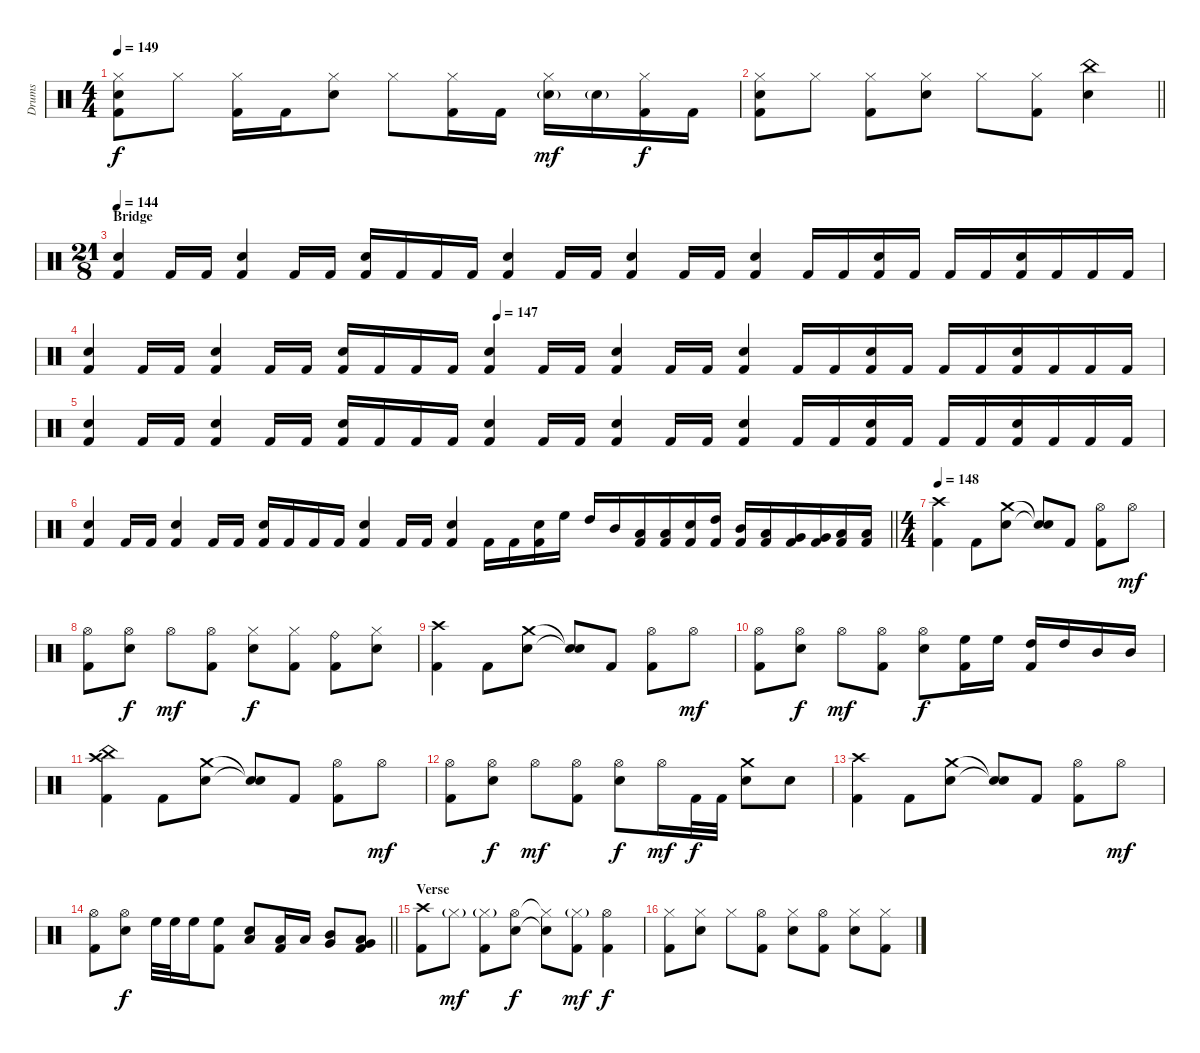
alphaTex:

\track ("Drums" "Drums") {instrument percussion}
\staff {score}
\articulation defaults
\ts (4 4)
\tempo 149
\clef neutral
\ks c
("Hi-Hat (closed)" "Snare (hit) 2" "Kick (hit) 2").8{dy f} "Hi-Hat (closed)".8 ("Hi-Hat (closed)" "Kick (hit) 2").16 "Kick (hit) 2".16 ("Hi-Hat (closed)" "Snare (hit) 2").8 "Hi-Hat (closed)".8 ("Hi-Hat (closed)" "Kick (hit) 2").16 "Kick (hit) 2".16 ("Hi-Hat (closed)" "Snare (hit) 2"{g}).16{dy mf} "Snare (hit) 2"{g}.16 ("Hi-Hat (closed)" "Kick (hit) 2").16{dy f} "Kick (hit) 2".16 |
\barLineRight lightlight
("Hi-Hat (closed)" "Snare (hit) 2" "Kick (hit) 2").8 "Hi-Hat (closed)".8 ("Hi-Hat (closed)" "Kick (hit) 2").8 ("Hi-Hat (closed)" "Snare (hit) 2").8 "Hi-Hat (closed)".8 ("Hi-Hat (closed)" "Kick (hit) 2").8 ("China (hit)" "Snare (hit) 2").4 |
\ts (21 8)
\section ("" "Bridge")
\tempo 144
("Snare (hit) 2" "Kick (hit) 2").4 "Kick (hit) 2".16 "Kick (hit) 2".16 ("Snare (hit) 2" "Kick (hit) 2").4 "Kick (hit) 2".16 "Kick (hit) 2".16 ("Snare (hit) 2" "Kick (hit) 2").16 "Kick (hit) 2".16 "Kick (hit) 2".16 "Kick (hit) 2".16 ("Snare (hit) 2" "Kick (hit) 2").4 "Kick (hit) 2".16 "Kick (hit) 2".16 ("Snare (hit) 2" "Kick (hit) 2").4 "Kick (hit) 2".16 "Kick (hit) 2".16 ("Snare (hit) 2" "Kick (hit) 2").4 "Kick (hit) 2".16 "Kick (hit) 2".16 ("Snare (hit) 2" "Kick (hit) 2").16 "Kick (hit) 2".16 "Kick (hit) 2".16 "Kick (hit) 2".16 ("Snare (hit) 2" "Kick (hit) 2").16 "Kick (hit) 2".16 "Kick (hit) 2".16 "Kick (hit) 2".16 |
\tempo (147 0.38095238095238093)
("Snare (hit) 2" "Kick (hit) 2").4 "Kick (hit) 2".16 "Kick (hit) 2".16 ("Snare (hit) 2" "Kick (hit) 2").4 "Kick (hit) 2".16 "Kick (hit) 2".16 ("Snare (hit) 2" "Kick (hit) 2").16 "Kick (hit) 2".16 "Kick (hit) 2".16 "Kick (hit) 2".16 ("Snare (hit) 2" "Kick (hit) 2").4 "Kick (hit) 2".16 "Kick (hit) 2".16 ("Snare (hit) 2" "Kick (hit) 2").4 "Kick (hit) 2".16 "Kick (hit) 2".16 ("Snare (hit) 2" "Kick (hit) 2").4 "Kick (hit) 2".16 "Kick (hit) 2".16 ("Snare (hit) 2" "Kick (hit) 2").16 "Kick (hit) 2".16 "Kick (hit) 2".16 "Kick (hit) 2".16 ("Snare (hit) 2" "Kick (hit) 2").16 "Kick (hit) 2".16 "Kick (hit) 2".16 "Kick (hit) 2".16 |
("Snare (hit) 2" "Kick (hit) 2").4 "Kick (hit) 2".16 "Kick (hit) 2".16 ("Snare (hit) 2" "Kick (hit) 2").4 "Kick (hit) 2".16 "Kick (hit) 2".16 ("Snare (hit) 2" "Kick (hit) 2").16 "Kick (hit) 2".16 "Kick (hit) 2".16 "Kick (hit) 2".16 ("Snare (hit) 2" "Kick (hit) 2").4 "Kick (hit) 2".16 "Kick (hit) 2".16 ("Snare (hit) 2" "Kick (hit) 2").4 "Kick (hit) 2".16 "Kick (hit) 2".16 ("Snare (hit) 2" "Kick (hit) 2").4 "Kick (hit) 2".16 "Kick (hit) 2".16 ("Snare (hit) 2" "Kick (hit) 2").16 "Kick (hit) 2".16 "Kick (hit) 2".16 "Kick (hit) 2".16 ("Snare (hit) 2" "Kick (hit) 2").16 "Kick (hit) 2".16 "Kick (hit) 2".16 "Kick (hit) 2".16 |
\barLineRight lightlight
("Snare (hit) 2" "Kick (hit) 2").4 "Kick (hit) 2".16 "Kick (hit) 2".16 ("Snare (hit) 2" "Kick (hit) 2").4 "Kick (hit) 2".16 "Kick (hit) 2".16 ("Snare (hit) 2" "Kick (hit) 2").16 "Kick (hit) 2".16 "Kick (hit) 2".16 "Kick (hit) 2".16 ("Snare (hit) 2" "Kick (hit) 2").4 "Kick (hit) 2".16 "Kick (hit) 2".16 ("Snare (hit) 2" "Kick (hit) 2").4 "Kick (hit) 2".16 "Kick (hit) 2".16 ("Snare (hit) 2" "Kick (hit) 2").16 "High Floor Tom (hit)".16 "High Tom (hit)".16 "Mid Tom (hit)".16 ("Low Tom (hit)" "Kick (hit) 2").16 ("Low Tom (hit)" "Kick (hit) 2").16 ("Snare (hit) 2" "Kick (hit) 2").16 ("High Tom (hit)" "Kick (hit) 2").16 ("Mid Tom (hit)" "Kick (hit) 2").16 ("Low Tom (hit)" "Kick (hit) 2").16 ("Very Low Tom (hit)" "Kick (hit) 2").16 ("Very Low Tom (hit)" "Kick (hit) 2").16 ("Low Floor Tom (hit)" "Kick (hit) 2").16 ("Low Floor Tom (hit)" "Kick (hit) 2").16 |
\ts (4 4)
\section ("" "")
\tempo 148
("Crash high (hit)" "Kick (hit) 2").4 "Kick (hit) 2".8 ("Crash medium (hit)" "Snare (hit) 2").8 ("Snare (hit)"{t} "Snare (hit)"{t}).8 "Kick (hit) 2".8 ("Hi-Hat (open)" "Kick (hit) 2").8 "Hi-Hat (open)".8{dy mf} |
("Hi-Hat (open)" "Kick (hit) 2").8 ("Hi-Hat (open)" "Snare (hit) 2").8{dy f} "Hi-Hat (open)".8{dy mf} ("Hi-Hat (open)" "Kick (hit) 2").8 ("Hi-Hat (closed)" "Snare (hit) 2").8{dy f} ("Hi-Hat (closed)" "Kick (hit) 2").8 ("Ride (bell)" "Kick (hit) 2").8 ("Hi-Hat (closed)" "Snare (hit) 2").8 |
("Crash high (hit)" "Kick (hit) 2").4 "Kick (hit) 2".8 ("Crash medium (hit)" "Snare (hit) 2").8 ("Snare (hit)"{t} "Snare (hit)"{t}).8 "Kick (hit) 2".8 ("Hi-Hat (open)" "Kick (hit) 2").8 "Hi-Hat (open)".8{dy mf} |
("Hi-Hat (open)" "Kick (hit) 2").8 ("Hi-Hat (open)" "Snare (hit) 2").8{dy f} "Hi-Hat (open)".8{dy mf} ("Hi-Hat (open)" "Kick (hit) 2").8 ("Hi-Hat (open)" "Snare (hit) 2").8{dy f} ("High Floor Tom (hit)" "Kick (hit) 2").16 "High Floor Tom (hit)".16 ("High Tom (hit)" "Kick (hit) 2").16 "High Tom (hit)".16 "Mid Tom (hit)".16 "Mid Tom (hit)".16 |
("Crash high (hit)" "China (hit)" "Kick (hit) 2").4 "Kick (hit) 2".8 ("Crash medium (hit)" "Snare (hit) 2").8 ("Snare (hit)"{t} "Snare (hit)"{t}).8 "Kick (hit) 2".8 ("Hi-Hat (open)" "Kick (hit) 2").8 "Hi-Hat (open)".8{dy mf} |
("Hi-Hat (open)" "Kick (hit) 2").8 ("Hi-Hat (open)" "Snare (hit) 2").8{dy f} "Hi-Hat (open)".8{dy mf} ("Hi-Hat (open)" "Kick (hit) 2").8 ("Hi-Hat (open)" "Snare (hit) 2").8{dy f} "Hi-Hat (open)".16{dy mf} "Kick (hit) 2".32{dy f} "Kick (hit) 2".32 ("Crash medium (hit)" "Snare (hit) 2").8 "Snare (hit) 2".8 |
("Crash high (hit)" "Kick (hit) 2").4 "Kick (hit) 2".8 ("Crash medium (hit)" "Snare (hit) 2").8 ("Snare (hit)"{t} "Snare (hit)"{t}).8 "Kick (hit) 2".8 ("Hi-Hat (open)" "Kick (hit) 2").8 "Hi-Hat (open)".8{dy mf} |
\barLineRight lightlight
("Hi-Hat (open)" "Kick (hit) 2").8 ("Hi-Hat (open)" "Snare (hit) 2").8{dy f} "High Floor Tom (hit)".32 "High Floor Tom (hit)".32 "High Floor Tom (hit)".16 ("High Floor Tom (hit)" "Kick (hit) 2").8 ("Snare (hit) 2" "Low Tom (hit)").8 ("Low Tom (hit)" "Kick (hit) 2").16 "Low Tom (hit)".16 ("Mid Tom (hit)" "Very Low Tom (hit)").8 ("Low Tom (hit)" "Very Low Tom (hit)" "Kick (hit) 2").8 |
\section ("" "Verse")
("Crash high (hit)" "Kick (hit) 2").8 "Hi-Hat (closed)"{g}.8{dy mf} ("Hi-Hat (closed)"{g} "Kick (hit) 2").8 ("Hi-Hat (open)" "Snare (hit) 2").8{dy f} ("Hi-Hat (closed)"{t} "Snare (hit)"{t}).8 ("Hi-Hat (closed)"{g} "Kick (hit) 2").8{dy mf} ("Hi-Hat (open)" "Kick (hit) 2").4{dy f} |
("Hi-Hat (closed)" "Kick (hit) 2").8 ("Hi-Hat (closed)" "Snare (hit) 2").8 "Hi-Hat (closed)".8 ("Hi-Hat (open)" "Kick (hit) 2").8 ("Hi-Hat (closed)" "Snare (hit) 2").8 ("Hi-Hat (open)" "Kick (hit) 2").8 ("Hi-Hat (closed)" "Snare (hit) 2").8 ("Hi-Hat (closed)" "Kick (hit) 2").8
